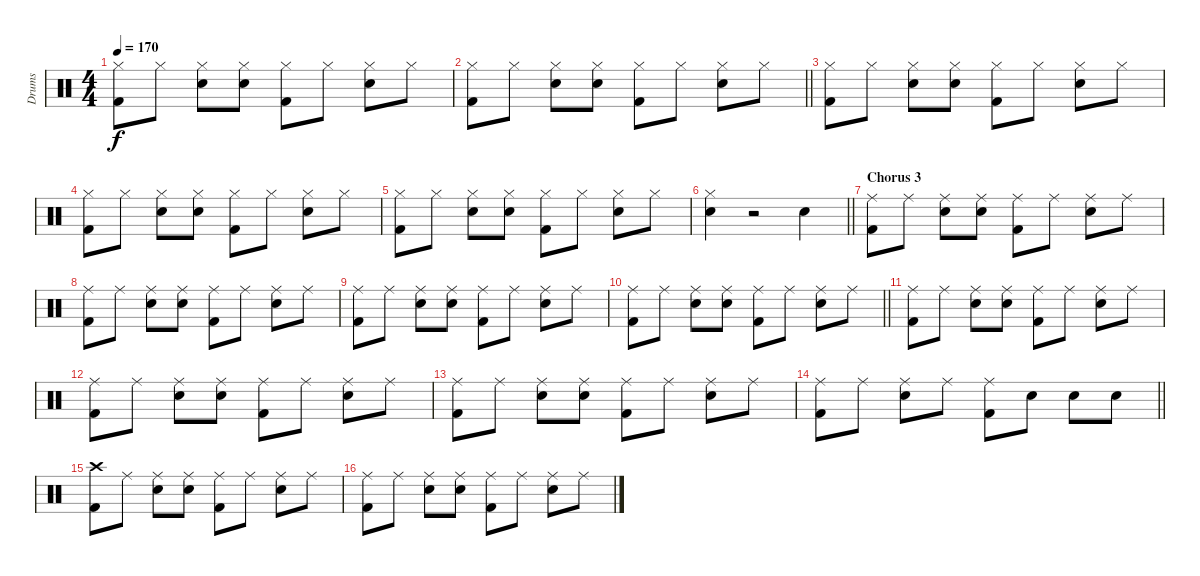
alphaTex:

\track ("Drums" "Drums") {instrument percussion}
\staff {score}
\articulation defaults
\ts (4 4)
\tempo 170
\clef neutral
\ks c
("Hi-Hat (closed)" "Kick (hit) 2").8{dy f} "Hi-Hat (closed)".8 ("Hi-Hat (closed)" "Snare (hit) 2").8 ("Hi-Hat (closed)" "Snare (hit) 2").8 ("Hi-Hat (closed)" "Kick (hit) 2").8 "Hi-Hat (closed)".8 ("Hi-Hat (closed)" "Snare (hit) 2").8 "Hi-Hat (closed)".8 |
\barLineRight lightlight
("Hi-Hat (closed)" "Kick (hit) 2").8 "Hi-Hat (closed)".8 ("Hi-Hat (closed)" "Snare (hit) 2").8 ("Hi-Hat (closed)" "Snare (hit) 2").8 ("Hi-Hat (closed)" "Kick (hit) 2").8 "Hi-Hat (closed)".8 ("Hi-Hat (closed)" "Snare (hit) 2").8 "Hi-Hat (closed)".8 |
("Hi-Hat (closed)" "Kick (hit) 2").8 "Hi-Hat (closed)".8 ("Hi-Hat (closed)" "Snare (hit) 2").8 ("Hi-Hat (closed)" "Snare (hit) 2").8 ("Hi-Hat (closed)" "Kick (hit) 2").8 "Hi-Hat (closed)".8 ("Hi-Hat (closed)" "Snare (hit) 2").8 "Hi-Hat (closed)".8 |
("Hi-Hat (closed)" "Kick (hit) 2").8 "Hi-Hat (closed)".8 ("Hi-Hat (closed)" "Snare (hit) 2").8 ("Hi-Hat (closed)" "Snare (hit) 2").8 ("Hi-Hat (closed)" "Kick (hit) 2").8 "Hi-Hat (closed)".8 ("Hi-Hat (closed)" "Snare (hit) 2").8 "Hi-Hat (closed)".8 |
("Hi-Hat (closed)" "Kick (hit) 2").8 "Hi-Hat (closed)".8 ("Hi-Hat (closed)" "Snare (hit) 2").8 ("Hi-Hat (closed)" "Snare (hit) 2").8 ("Hi-Hat (closed)" "Kick (hit) 2").8 "Hi-Hat (closed)".8 ("Hi-Hat (closed)" "Snare (hit) 2").8 "Hi-Hat (closed)".8 |
\barLineRight lightlight
("Hi-Hat (closed)" "Snare (hit) 2").4 r.2 "Snare (hit) 2".4 |
\section ("" "Chorus 3")
("Ride (middle)" "Kick (hit) 2").8 "Ride (middle)".8 ("Ride (middle)" "Snare (hit) 2").8 ("Ride (middle)" "Snare (hit) 2").8 ("Ride (middle)" "Kick (hit) 2").8 "Ride (middle)".8 ("Ride (middle)" "Snare (hit) 2").8 "Ride (middle)".8 |
("Ride (middle)" "Kick (hit) 2").8 "Ride (middle)".8 ("Ride (middle)" "Snare (hit) 2").8 ("Ride (middle)" "Snare (hit) 2").8 ("Ride (middle)" "Kick (hit) 2").8 "Ride (middle)".8 ("Ride (middle)" "Snare (hit) 2").8 "Ride (middle)".8 |
("Ride (middle)" "Kick (hit) 2").8 "Ride (middle)".8 ("Ride (middle)" "Snare (hit) 2").8 ("Ride (middle)" "Snare (hit) 2").8 ("Ride (middle)" "Kick (hit) 2").8 "Ride (middle)".8 ("Ride (middle)" "Snare (hit) 2").8 "Ride (middle)".8 |
\barLineRight lightlight
("Ride (middle)" "Kick (hit) 2").8 "Ride (middle)".8 ("Ride (middle)" "Snare (hit) 2").8 ("Ride (middle)" "Snare (hit) 2").8 ("Ride (middle)" "Kick (hit) 2").8 "Ride (middle)".8 ("Ride (middle)" "Snare (hit) 2").8 "Ride (middle)".8 |
("Ride (middle)" "Kick (hit) 2").8 "Ride (middle)".8 ("Ride (middle)" "Snare (hit) 2").8 ("Ride (middle)" "Snare (hit) 2").8 ("Ride (middle)" "Kick (hit) 2").8 "Ride (middle)".8 ("Ride (middle)" "Snare (hit) 2").8 "Ride (middle)".8 |
("Ride (middle)" "Kick (hit) 2").8 "Ride (middle)".8 ("Ride (middle)" "Snare (hit) 2").8 ("Ride (middle)" "Snare (hit) 2").8 ("Ride (middle)" "Kick (hit) 2").8 "Ride (middle)".8 ("Ride (middle)" "Snare (hit) 2").8 "Ride (middle)".8 |
("Ride (middle)" "Kick (hit) 2").8 "Ride (middle)".8 ("Ride (middle)" "Snare (hit) 2").8 ("Ride (middle)" "Snare (hit) 2").8 ("Ride (middle)" "Kick (hit) 2").8 "Ride (middle)".8 ("Ride (middle)" "Snare (hit) 2").8 "Ride (middle)".8 |
\barLineRight lightlight
("Ride (middle)" "Kick (hit) 2").8 "Ride (middle)".8 ("Ride (middle)" "Snare (hit) 2").8 "Ride (middle)".8 ("Ride (middle)" "Kick (hit) 2").8 "Snare (hit) 2".8 "Snare (hit) 2".8 "Snare (hit) 2".8 |
("Crash high (hit)" "Kick (hit) 2").8 "Ride (middle)".8 ("Ride (middle)" "Snare (hit) 2").8 ("Ride (middle)" "Snare (hit) 2").8 ("Ride (middle)" "Kick (hit) 2").8 "Ride (middle)".8 ("Ride (middle)" "Snare (hit) 2").8 "Ride (middle)".8 |
("Ride (middle)" "Kick (hit) 2").8 "Ride (middle)".8 ("Ride (middle)" "Snare (hit) 2").8 ("Ride (middle)" "Snare (hit) 2").8 ("Ride (middle)" "Kick (hit) 2").8 "Ride (middle)".8 ("Ride (middle)" "Snare (hit) 2").8 "Ride (middle)".8
